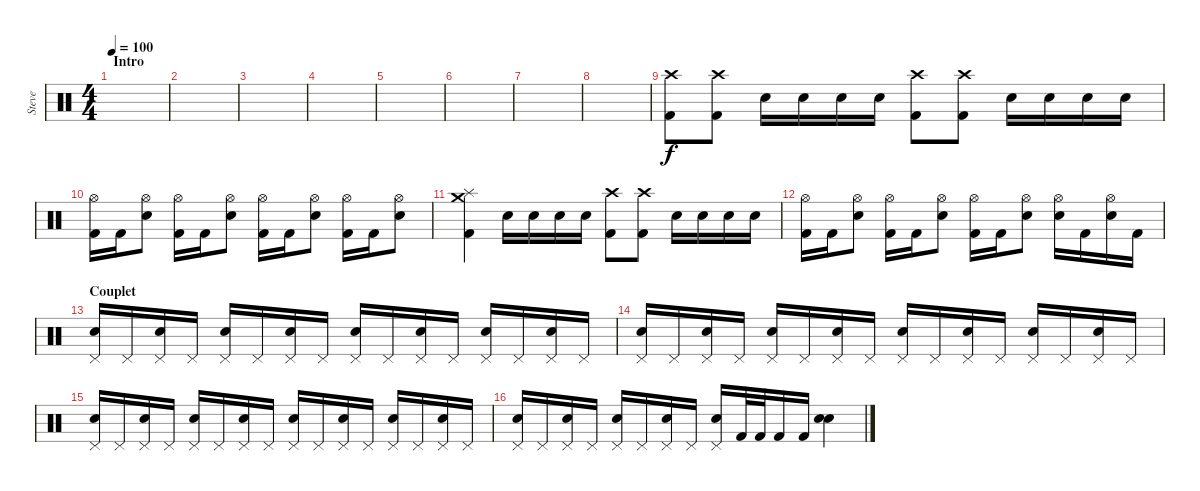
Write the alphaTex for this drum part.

\track ("Steve" "Steve") {instrument percussion}
\staff {score}
\articulation defaults
\ts (4 4)
\section ("" "Intro")
\tempo 100
\clef neutral
\ks c
|
|
|
|
|
|
|
|
("Crash high (hit)" "Kick (hit) 2").8 ("Crash high (hit)" "Kick (hit) 2").8 "Electric Snare (hit)".16 "Electric Snare (hit)".16 "Electric Snare (hit)".16 "Electric Snare (hit)".16 ("Crash high (hit)" "Kick (hit) 2").8 ("Crash high (hit)" "Kick (hit) 2").8 "Electric Snare (hit)".16 "Electric Snare (hit)".16 "Electric Snare (hit)".16 "Electric Snare (hit)".16 |
("Hi-Hat (open)" "Kick (hit) 2").16 "Kick (hit) 2".16 ("Hi-Hat (open)" "Electric Snare (hit)").8 ("Hi-Hat (open)" "Kick (hit) 2").16 "Kick (hit) 2".16 ("Hi-Hat (open)" "Electric Snare (hit)").8 ("Hi-Hat (open)" "Kick (hit) 2").16 "Kick (hit) 2".16 ("Hi-Hat (open)" "Electric Snare (hit)").8 ("Hi-Hat (open)" "Kick (hit) 2").16 "Kick (hit) 2".16 ("Hi-Hat (open)" "Electric Snare (hit)").8 |
("Kick (hit) 2" "Crash medium (hit)" "Splash (hit)").4 "Electric Snare (hit)".16 "Electric Snare (hit)".16 "Electric Snare (hit)".16 "Electric Snare (hit)".16 ("Crash high (hit)" "Kick (hit) 2").8 ("Crash high (hit)" "Kick (hit) 2").8 "Electric Snare (hit)".16 "Electric Snare (hit)".16 "Electric Snare (hit)".16 "Electric Snare (hit)".16 |
("Hi-Hat (open)" "Kick (hit) 2").16 "Kick (hit) 2".16 ("Hi-Hat (open)" "Electric Snare (hit)").8 ("Hi-Hat (open)" "Kick (hit) 2").16 "Kick (hit) 2".16 ("Hi-Hat (open)" "Electric Snare (hit)").8 ("Hi-Hat (open)" "Kick (hit) 2").16 "Kick (hit) 2".16 ("Hi-Hat (open)" "Electric Snare (hit)").8 ("Hi-Hat (open)" "Electric Snare (hit)").16 "Kick (hit) 2".16 ("Hi-Hat (open)" "Electric Snare (hit)").16 "Kick (hit) 2".16 |
\section ("" "Couplet")
("Pedal Hi-Hat (hit)" "Electric Snare (hit)").16 "Pedal Hi-Hat (hit)".16 ("Pedal Hi-Hat (hit)" "Electric Snare (hit)").16 "Pedal Hi-Hat (hit)".16 ("Pedal Hi-Hat (hit)" "Electric Snare (hit)").16 "Pedal Hi-Hat (hit)".16 ("Pedal Hi-Hat (hit)" "Electric Snare (hit)").16 "Pedal Hi-Hat (hit)".16 ("Pedal Hi-Hat (hit)" "Electric Snare (hit)").16 "Pedal Hi-Hat (hit)".16 ("Pedal Hi-Hat (hit)" "Electric Snare (hit)").16 "Pedal Hi-Hat (hit)".16 ("Pedal Hi-Hat (hit)" "Electric Snare (hit)").16 "Pedal Hi-Hat (hit)".16 ("Pedal Hi-Hat (hit)" "Electric Snare (hit)").16 "Pedal Hi-Hat (hit)".16 |
("Pedal Hi-Hat (hit)" "Electric Snare (hit)").16 "Pedal Hi-Hat (hit)".16 ("Pedal Hi-Hat (hit)" "Electric Snare (hit)").16 "Pedal Hi-Hat (hit)".16 ("Pedal Hi-Hat (hit)" "Electric Snare (hit)").16 "Pedal Hi-Hat (hit)".16 ("Pedal Hi-Hat (hit)" "Electric Snare (hit)").16 "Pedal Hi-Hat (hit)".16 ("Pedal Hi-Hat (hit)" "Electric Snare (hit)").16 "Pedal Hi-Hat (hit)".16 ("Pedal Hi-Hat (hit)" "Electric Snare (hit)").16 "Pedal Hi-Hat (hit)".16 ("Pedal Hi-Hat (hit)" "Electric Snare (hit)").16 "Pedal Hi-Hat (hit)".16 ("Pedal Hi-Hat (hit)" "Electric Snare (hit)").16 "Pedal Hi-Hat (hit)".16 |
("Pedal Hi-Hat (hit)" "Electric Snare (hit)").16 "Pedal Hi-Hat (hit)".16 ("Pedal Hi-Hat (hit)" "Electric Snare (hit)").16 "Pedal Hi-Hat (hit)".16 ("Pedal Hi-Hat (hit)" "Electric Snare (hit)").16 "Pedal Hi-Hat (hit)".16 ("Pedal Hi-Hat (hit)" "Electric Snare (hit)").16 "Pedal Hi-Hat (hit)".16 ("Pedal Hi-Hat (hit)" "Electric Snare (hit)").16 "Pedal Hi-Hat (hit)".16 ("Pedal Hi-Hat (hit)" "Electric Snare (hit)").16 "Pedal Hi-Hat (hit)".16 ("Pedal Hi-Hat (hit)" "Electric Snare (hit)").16 "Pedal Hi-Hat (hit)".16 ("Pedal Hi-Hat (hit)" "Electric Snare (hit)").16 "Pedal Hi-Hat (hit)".16 |
("Pedal Hi-Hat (hit)" "Electric Snare (hit)").16 "Pedal Hi-Hat (hit)".16 ("Pedal Hi-Hat (hit)" "Electric Snare (hit)").16 "Pedal Hi-Hat (hit)".16 ("Pedal Hi-Hat (hit)" "Electric Snare (hit)").16 "Pedal Hi-Hat (hit)".16 ("Pedal Hi-Hat (hit)" "Electric Snare (hit)").16 "Pedal Hi-Hat (hit)".16 ("Pedal Hi-Hat (hit)" "Electric Snare (hit)").16 "Kick (hit) 2".32 "Kick (hit) 2".32 "Kick (hit) 2".16 "Kick (hit) 2".16 ("Electric Snare (hit)" "Electric Snare (hit)").4
